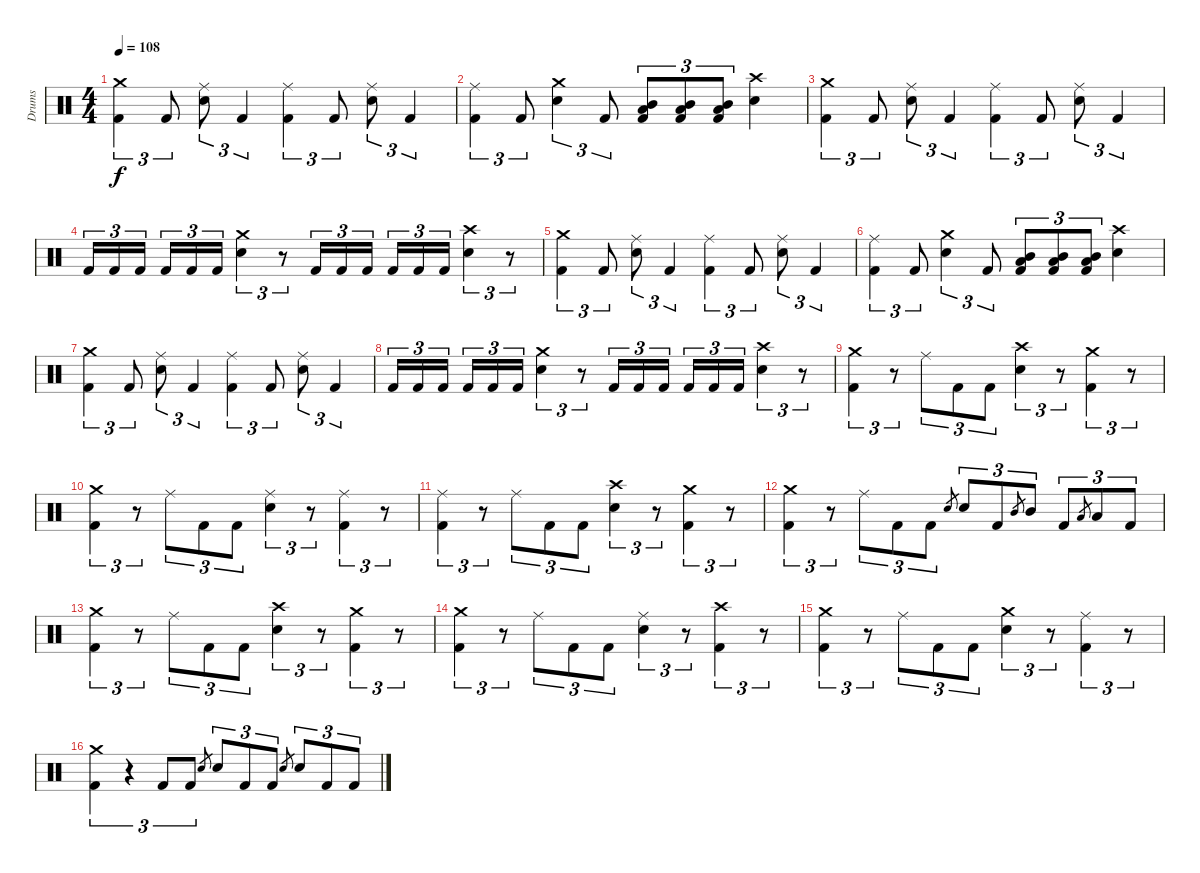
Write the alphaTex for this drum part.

\track ("Drums" "Drums") {instrument percussion}
\staff {score}
\articulation defaults
\ts (4 4)
\tempo 108
\clef neutral
\ks c
("Crash medium (hit)" "Kick (hit) 2").4{tu (3 2) dy f} "Kick (hit) 2".8{tu (3 2)} ("Ride (middle)" "Electric Snare (hit)").8{tu (3 2)} "Kick (hit) 2".4{tu (3 2)} ("Ride (middle)" "Kick (hit) 2").4{tu (3 2)} "Kick (hit) 2".8{tu (3 2)} ("Ride (middle)" "Electric Snare (hit)").8{tu (3 2)} "Kick (hit) 2".4{tu (3 2)} |
("Ride (middle)" "Kick (hit) 2").4{tu (3 2)} "Kick (hit) 2".8{tu (3 2)} ("Crash medium (hit)" "Electric Snare (hit)").4{tu (3 2)} "Kick (hit) 2".8{tu (3 2)} ("Low Tom (hit)" "Mid Tom (hit)" "Kick (hit) 2").8{tu (3 2)} ("Low Tom (hit)" "Mid Tom (hit)" "Kick (hit) 2").8{tu (3 2)} ("Low Tom (hit)" "Mid Tom (hit)" "Kick (hit) 2").8{tu (3 2)} ("Crash high (hit)" "Electric Snare (hit)").4 |
("Crash medium (hit)" "Kick (hit) 2").4{tu (3 2)} "Kick (hit) 2".8{tu (3 2)} ("Ride (middle)" "Electric Snare (hit)").8{tu (3 2)} "Kick (hit) 2".4{tu (3 2)} ("Ride (middle)" "Kick (hit) 2").4{tu (3 2)} "Kick (hit) 2".8{tu (3 2)} ("Ride (middle)" "Electric Snare (hit)").8{tu (3 2)} "Kick (hit) 2".4{tu (3 2)} |
"Kick (hit) 2".16{tu (3 2)} "Kick (hit) 2".16{tu (3 2)} "Kick (hit) 2".16{tu (3 2) beam splitsecondary} "Kick (hit) 2".16{tu (3 2)} "Kick (hit) 2".16{tu (3 2)} "Kick (hit) 2".16{tu (3 2)} ("Crash medium (hit)" "Electric Snare (hit)").4{tu (3 2)} r.8{tu (3 2)} "Kick (hit) 2".16{tu (3 2)} "Kick (hit) 2".16{tu (3 2)} "Kick (hit) 2".16{tu (3 2) beam splitsecondary} "Kick (hit) 2".16{tu (3 2)} "Kick (hit) 2".16{tu (3 2)} "Kick (hit) 2".16{tu (3 2)} ("Crash high (hit)" "Electric Snare (hit)").4{tu (3 2)} r.8{tu (3 2)} |
("Crash medium (hit)" "Kick (hit) 2").4{tu (3 2)} "Kick (hit) 2".8{tu (3 2)} ("Ride (middle)" "Electric Snare (hit)").8{tu (3 2)} "Kick (hit) 2".4{tu (3 2)} ("Ride (middle)" "Kick (hit) 2").4{tu (3 2)} "Kick (hit) 2".8{tu (3 2)} ("Ride (middle)" "Electric Snare (hit)").8{tu (3 2)} "Kick (hit) 2".4{tu (3 2)} |
("Ride (middle)" "Kick (hit) 2").4{tu (3 2)} "Kick (hit) 2".8{tu (3 2)} ("Crash medium (hit)" "Electric Snare (hit)").4{tu (3 2)} "Kick (hit) 2".8{tu (3 2)} ("Low Tom (hit)" "Mid Tom (hit)" "Kick (hit) 2").8{tu (3 2)} ("Low Tom (hit)" "Mid Tom (hit)" "Kick (hit) 2").8{tu (3 2)} ("Low Tom (hit)" "Mid Tom (hit)" "Kick (hit) 2").8{tu (3 2)} ("Crash high (hit)" "Electric Snare (hit)").4 |
("Crash medium (hit)" "Kick (hit) 2").4{tu (3 2)} "Kick (hit) 2".8{tu (3 2)} ("Ride (middle)" "Electric Snare (hit)").8{tu (3 2)} "Kick (hit) 2".4{tu (3 2)} ("Ride (middle)" "Kick (hit) 2").4{tu (3 2)} "Kick (hit) 2".8{tu (3 2)} ("Ride (middle)" "Electric Snare (hit)").8{tu (3 2)} "Kick (hit) 2".4{tu (3 2)} |
"Kick (hit) 2".16{tu (3 2)} "Kick (hit) 2".16{tu (3 2)} "Kick (hit) 2".16{tu (3 2) beam splitsecondary} "Kick (hit) 2".16{tu (3 2)} "Kick (hit) 2".16{tu (3 2)} "Kick (hit) 2".16{tu (3 2)} ("Crash medium (hit)" "Electric Snare (hit)").4{tu (3 2)} r.8{tu (3 2)} "Kick (hit) 2".16{tu (3 2)} "Kick (hit) 2".16{tu (3 2)} "Kick (hit) 2".16{tu (3 2) beam splitsecondary} "Kick (hit) 2".16{tu (3 2)} "Kick (hit) 2".16{tu (3 2)} "Kick (hit) 2".16{tu (3 2)} ("Crash high (hit)" "Electric Snare (hit)").4{tu (3 2)} r.8{tu (3 2)} |
("Crash medium (hit)" "Kick (hit) 2").4{tu (3 2)} r.8{tu (3 2)} "Ride (middle)".8{tu (3 2)} "Kick (hit) 2".8{tu (3 2)} "Kick (hit) 2".8{tu (3 2)} ("Crash high (hit)" "Electric Snare (hit)").4{tu (3 2)} r.8{tu (3 2)} ("Crash medium (hit)" "Kick (hit) 2").4{tu (3 2)} r.8{tu (3 2)} |
("Crash medium (hit)" "Kick (hit) 2").4{tu (3 2)} r.8{tu (3 2)} "Ride (middle)".8{tu (3 2)} "Kick (hit) 2".8{tu (3 2)} "Kick (hit) 2".8{tu (3 2)} ("Ride (middle)" "Electric Snare (hit)").4{tu (3 2)} r.8{tu (3 2)} ("Ride (middle)" "Kick (hit) 2").4{tu (3 2)} r.8{tu (3 2)} |
("Ride (middle)" "Kick (hit) 2").4{tu (3 2)} r.8{tu (3 2)} "Ride (middle)".8{tu (3 2)} "Kick (hit) 2".8{tu (3 2)} "Kick (hit) 2".8{tu (3 2)} ("Crash high (hit)" "Electric Snare (hit)").4{tu (3 2)} r.8{tu (3 2)} ("Crash medium (hit)" "Kick (hit) 2").4{tu (3 2)} r.8{tu (3 2)} |
("Crash medium (hit)" "Kick (hit) 2").4{tu (3 2)} r.8{tu (3 2)} "Ride (middle)".8{tu (3 2)} "Kick (hit) 2".8{tu (3 2)} "Kick (hit) 2".8{tu (3 2)} "Electric Snare (hit)".8{gr} "Electric Snare (hit)".8{tu (3 2)} "Kick (hit) 2".8{tu (3 2)} "Mid Tom (hit)".8{gr} "Mid Tom (hit)".8{tu (3 2)} "Kick (hit) 2".8{tu (3 2)} "Low Tom (hit)".8{gr} "Low Tom (hit)".8{tu (3 2)} "Kick (hit) 2".8{tu (3 2)} |
("Crash medium (hit)" "Kick (hit) 2").4{tu (3 2)} r.8{tu (3 2)} "Ride (middle)".8{tu (3 2)} "Kick (hit) 2".8{tu (3 2)} "Kick (hit) 2".8{tu (3 2)} ("Crash high (hit)" "Electric Snare (hit)").4{tu (3 2)} r.8{tu (3 2)} ("Crash medium (hit)" "Kick (hit) 2").4{tu (3 2)} r.8{tu (3 2)} |
("Crash medium (hit)" "Kick (hit) 2").4{tu (3 2)} r.8{tu (3 2)} "Ride (middle)".8{tu (3 2)} "Kick (hit) 2".8{tu (3 2)} "Kick (hit) 2".8{tu (3 2)} ("Ride (middle)" "Electric Snare (hit)").4{tu (3 2)} r.8{tu (3 2)} ("Crash high (hit)" "Kick (hit) 2").4{tu (3 2)} r.8{tu (3 2)} |
("Crash medium (hit)" "Kick (hit) 2").4{tu (3 2)} r.8{tu (3 2)} "Ride (middle)".8{tu (3 2)} "Kick (hit) 2".8{tu (3 2)} "Kick (hit) 2".8{tu (3 2)} ("Crash medium (hit)" "Electric Snare (hit)").4{tu (3 2)} r.8{tu (3 2)} ("Ride (middle)" "Kick (hit) 2").4{tu (3 2)} r.8{tu (3 2)} |
("Crash medium (hit)" "Kick (hit) 2").4{tu (3 2)} r.4{tu (3 2)} "Kick (hit) 2".8{tu (3 2)} "Kick (hit) 2".8{tu (3 2)} "Electric Snare (hit)".8{gr} "Electric Snare (hit)".8{tu (3 2)} "Kick (hit) 2".8{tu (3 2)} "Kick (hit) 2".8{tu (3 2)} "Electric Snare (hit)".8{gr} "Electric Snare (hit)".8{tu (3 2)} "Kick (hit) 2".8{tu (3 2)} "Kick (hit) 2".8{tu (3 2)}
